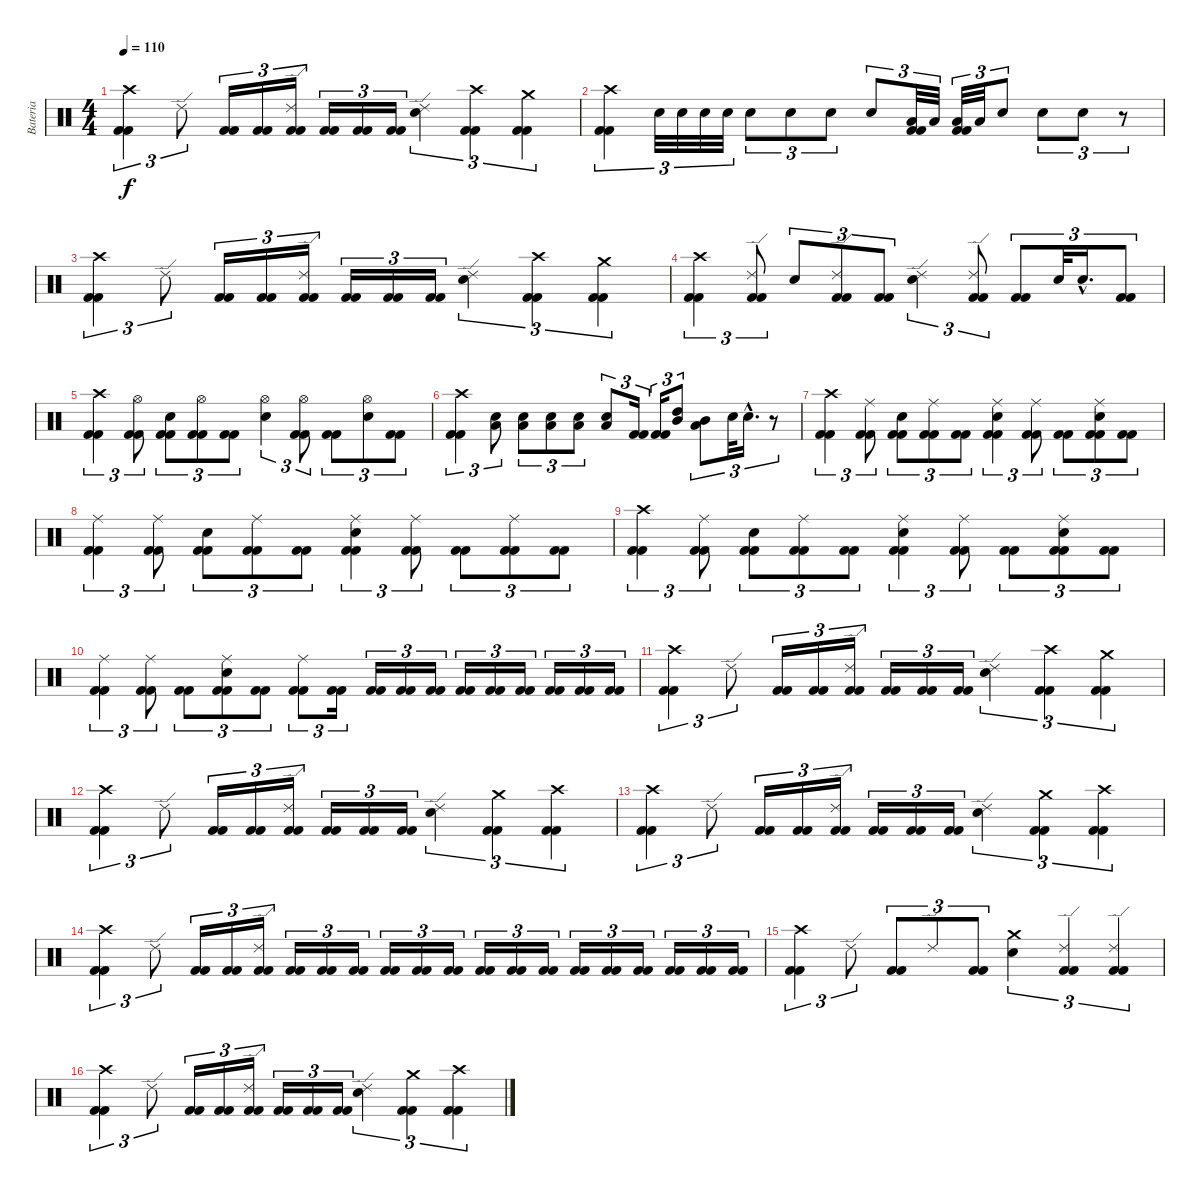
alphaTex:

\track ("Bateria" "Bateria") {instrument percussion}
\staff {score}
\articulation defaults
\ts (4 4)
\tempo 110
\clef neutral
\ks c
("Crash high (hit)" "Kick (hit) 2" "Kick (hit) 2").4{tu (3 2) dy f} "Ride (edge) 2".8{tu (3 2)} ("Kick (hit) 2" "Kick (hit) 2").16{tu (3 2)} ("Kick (hit) 2" "Kick (hit) 2").16{tu (3 2)} ("Ride (edge) 2" "Kick (hit) 2" "Kick (hit) 2").16{tu (3 2)} ("Kick (hit) 2" "Kick (hit) 2").16{tu (3 2)} ("Kick (hit) 2" "Kick (hit) 2").16{tu (3 2)} ("Kick (hit) 2" "Kick (hit) 2").16{tu (3 2)} ("Ride (edge) 2" "Electric Snare (hit)").4{tu (3 2)} ("Crash high (hit)" "Kick (hit) 2" "Kick (hit) 2").4{tu (3 2)} ("Crash medium (hit)" "Kick (hit) 2" "Kick (hit) 2").4{tu (3 2)} |
("Crash high (hit)" "Kick (hit) 2" "Kick (hit) 2").4{tu (3 2)} "Electric Snare (hit)".32{tu (3 2)} "Electric Snare (hit)".32{tu (3 2)} "Electric Snare (hit)".32{tu (3 2)} "Electric Snare (hit)".32{tu (3 2)} "Electric Snare (hit)".8{tu (3 2)} "Electric Snare (hit)".8{tu (3 2)} "Electric Snare (hit)".8{tu (3 2)} "Electric Snare (hit)".8{tu (3 2)} ("Low Tom (hit)" "Kick (hit) 2" "Kick (hit) 2").32{tu (3 2)} "Low Tom (hit)".32{tu (3 2)} ("Low Tom (hit)" "Kick (hit) 2" "Kick (hit) 2").32{tu (3 2)} "Low Tom (hit)".32{tu (3 2)} "Electric Snare (hit)".8{tu (3 2)} "Electric Snare (hit)".8{tu (3 2)} "Electric Snare (hit)".8{tu (3 2)} r.8{tu (3 2)} |
("Crash high (hit)" "Kick (hit) 2" "Kick (hit) 2").4{tu (3 2)} "Ride (edge) 2".8{tu (3 2)} ("Kick (hit) 2" "Kick (hit) 2").16{tu (3 2)} ("Kick (hit) 2" "Kick (hit) 2").16{tu (3 2)} ("Ride (edge) 2" "Kick (hit) 2" "Kick (hit) 2").16{tu (3 2)} ("Kick (hit) 2" "Kick (hit) 2").16{tu (3 2)} ("Kick (hit) 2" "Kick (hit) 2").16{tu (3 2)} ("Kick (hit) 2" "Kick (hit) 2").16{tu (3 2)} ("Ride (edge) 2" "Electric Snare (hit)").4{tu (3 2)} ("Crash high (hit)" "Kick (hit) 2" "Kick (hit) 2").4{tu (3 2)} ("Crash medium (hit)" "Kick (hit) 2" "Kick (hit) 2").4{tu (3 2)} |
("Crash high (hit)" "Kick (hit) 2" "Kick (hit) 2").4{tu (3 2)} ("Ride (edge) 2" "Kick (hit) 2" "Kick (hit) 2").8{tu (3 2)} "Electric Snare (hit)".8{tu (3 2)} ("Ride (edge) 2" "Kick (hit) 2" "Kick (hit) 2").8{tu (3 2)} ("Kick (hit) 2" "Kick (hit) 2").8{tu (3 2)} ("Ride (edge) 2" "Electric Snare (hit)").4{tu (3 2)} ("Ride (edge) 2" "Kick (hit) 2" "Kick (hit) 2").8{tu (3 2)} ("Kick (hit) 2" "Kick (hit) 2").8{tu (3 2)} "Electric Snare (hit)".32{tu (3 2)} "Electric Snare (hit)"{hac}.16{d tu (3 2)} ("Kick (hit) 2" "Kick (hit) 2").8{tu (3 2)} |
("Crash high (hit)" "Kick (hit) 2" "Kick (hit) 2").4{tu (3 2)} ("Hi-Hat (open)" "Kick (hit) 2" "Kick (hit) 2").8{tu (3 2)} ("Electric Snare (hit)" "Kick (hit) 2" "Kick (hit) 2").8{tu (3 2)} ("Hi-Hat (open)" "Kick (hit) 2" "Kick (hit) 2").8{tu (3 2)} ("Kick (hit) 2" "Kick (hit) 2").8{tu (3 2)} ("Hi-Hat (open)" "Electric Snare (hit)").4{tu (3 2)} ("Hi-Hat (open)" "Kick (hit) 2" "Kick (hit) 2").8{tu (3 2)} ("Kick (hit) 2" "Kick (hit) 2").8{tu (3 2)} ("Hi-Hat (open)" "Electric Snare (hit)").8{tu (3 2)} ("Kick (hit) 2" "Kick (hit) 2").8{tu (3 2)} |
("Crash high (hit)" "Kick (hit) 2" "Kick (hit) 2").4{tu (3 2)} ("Electric Snare (hit)" "Low Tom (hit)").8{tu (3 2)} ("Electric Snare (hit)" "Low Tom (hit)").8{tu (3 2)} ("Electric Snare (hit)" "Low Tom (hit)").8{tu (3 2)} ("Electric Snare (hit)" "Low Tom (hit)").8{tu (3 2)} ("Electric Snare (hit)" "Low Tom (hit)").8{tu (3 2)} ("Kick (hit) 2" "Kick (hit) 2").16{tu (3 2)} ("Kick (hit) 2" "Kick (hit) 2").16{tu (3 2)} ("High Tom (hit)" "Mid Tom (hit)").8{tu (3 2)} ("Mid Tom (hit)" "Low Tom (hit)").8{tu (3 2)} "Electric Snare (hit)".32{tu (3 2)} "Electric Snare (hit)"{hac}.16{d tu (3 2)} r.8{tu (3 2)} |
("Crash high (hit)" "Kick (hit) 2" "Kick (hit) 2").4{tu (3 2)} ("Ride (middle)" "Kick (hit) 2" "Kick (hit) 2").8{tu (3 2)} ("Electric Snare (hit)" "Kick (hit) 2" "Kick (hit) 2").8{tu (3 2)} ("Ride (middle)" "Kick (hit) 2" "Kick (hit) 2").8{tu (3 2)} ("Kick (hit) 2" "Kick (hit) 2").8{tu (3 2)} ("Ride (middle)" "Electric Snare (hit)" "Kick (hit) 2" "Kick (hit) 2").4{tu (3 2)} ("Ride (middle)" "Kick (hit) 2" "Kick (hit) 2").8{tu (3 2)} ("Kick (hit) 2" "Kick (hit) 2").8{tu (3 2)} ("Ride (middle)" "Electric Snare (hit)" "Kick (hit) 2" "Kick (hit) 2").8{tu (3 2)} ("Kick (hit) 2" "Kick (hit) 2").8{tu (3 2)} |
("Ride (middle)" "Kick (hit) 2" "Kick (hit) 2").4{tu (3 2)} ("Ride (middle)" "Kick (hit) 2" "Kick (hit) 2").8{tu (3 2)} ("Electric Snare (hit)" "Kick (hit) 2" "Kick (hit) 2").8{tu (3 2)} ("Ride (middle)" "Kick (hit) 2" "Kick (hit) 2").8{tu (3 2)} ("Kick (hit) 2" "Kick (hit) 2").8{tu (3 2)} ("Ride (middle)" "Electric Snare (hit)" "Kick (hit) 2" "Kick (hit) 2").4{tu (3 2)} ("Ride (middle)" "Kick (hit) 2" "Kick (hit) 2").8{tu (3 2)} ("Kick (hit) 2" "Kick (hit) 2").8{tu (3 2)} ("Ride (middle)" "Kick (hit) 2" "Kick (hit) 2").8{tu (3 2)} ("Kick (hit) 2" "Kick (hit) 2").8{tu (3 2)} |
("Crash high (hit)" "Kick (hit) 2" "Kick (hit) 2").4{tu (3 2)} ("Ride (middle)" "Kick (hit) 2" "Kick (hit) 2").8{tu (3 2)} ("Electric Snare (hit)" "Kick (hit) 2" "Kick (hit) 2").8{tu (3 2)} ("Ride (middle)" "Kick (hit) 2" "Kick (hit) 2").8{tu (3 2)} ("Kick (hit) 2" "Kick (hit) 2").8{tu (3 2)} ("Ride (middle)" "Electric Snare (hit)" "Kick (hit) 2" "Kick (hit) 2").4{tu (3 2)} ("Ride (middle)" "Kick (hit) 2" "Kick (hit) 2").8{tu (3 2)} ("Kick (hit) 2" "Kick (hit) 2").8{tu (3 2)} ("Ride (middle)" "Electric Snare (hit)" "Kick (hit) 2" "Kick (hit) 2").8{tu (3 2)} ("Kick (hit) 2" "Kick (hit) 2").8{tu (3 2)} |
("Ride (middle)" "Kick (hit) 2" "Kick (hit) 2").4{tu (3 2)} ("Ride (middle)" "Kick (hit) 2" "Kick (hit) 2").8{tu (3 2)} ("Kick (hit) 2" "Kick (hit) 2").8{tu (3 2)} ("Ride (middle)" "Electric Snare (hit)" "Kick (hit) 2" "Kick (hit) 2").8{tu (3 2)} ("Kick (hit) 2" "Kick (hit) 2").8{tu (3 2)} ("Ride (middle)" "Kick (hit) 2" "Kick (hit) 2").8{tu (3 2)} ("Kick (hit) 2" "Kick (hit) 2").16{tu (3 2)} ("Kick (hit) 2" "Kick (hit) 2").16{tu (3 2)} ("Kick (hit) 2" "Kick (hit) 2").16{tu (3 2)} ("Kick (hit) 2" "Kick (hit) 2").16{tu (3 2)} ("Kick (hit) 2" "Kick (hit) 2").16{tu (3 2)} ("Kick (hit) 2" "Kick (hit) 2").16{tu (3 2)} ("Kick (hit) 2" "Kick (hit) 2").16{tu (3 2)} ("Kick (hit) 2" "Kick (hit) 2").16{tu (3 2)} ("Kick (hit) 2" "Kick (hit) 2").16{tu (3 2)} ("Kick (hit) 2" "Kick (hit) 2").16{tu (3 2)} |
("Crash high (hit)" "Kick (hit) 2" "Kick (hit) 2").4{tu (3 2)} "Ride (edge) 2".8{tu (3 2)} ("Kick (hit) 2" "Kick (hit) 2").16{tu (3 2)} ("Kick (hit) 2" "Kick (hit) 2").16{tu (3 2)} ("Ride (edge) 2" "Kick (hit) 2" "Kick (hit) 2").16{tu (3 2)} ("Kick (hit) 2" "Kick (hit) 2").16{tu (3 2)} ("Kick (hit) 2" "Kick (hit) 2").16{tu (3 2)} ("Kick (hit) 2" "Kick (hit) 2").16{tu (3 2)} ("Ride (edge) 2" "Electric Snare (hit)").4{tu (3 2)} ("Crash high (hit)" "Kick (hit) 2" "Kick (hit) 2").4{tu (3 2)} ("Crash medium (hit)" "Kick (hit) 2" "Kick (hit) 2").4{tu (3 2)} |
("Crash high (hit)" "Kick (hit) 2" "Kick (hit) 2").4{tu (3 2)} "Ride (edge) 2".8{tu (3 2)} ("Kick (hit) 2" "Kick (hit) 2").16{tu (3 2)} ("Kick (hit) 2" "Kick (hit) 2").16{tu (3 2)} ("Ride (edge) 2" "Kick (hit) 2" "Kick (hit) 2").16{tu (3 2)} ("Kick (hit) 2" "Kick (hit) 2").16{tu (3 2)} ("Kick (hit) 2" "Kick (hit) 2").16{tu (3 2)} ("Kick (hit) 2" "Kick (hit) 2").16{tu (3 2)} ("Ride (edge) 2" "Electric Snare (hit)").4{tu (3 2)} ("Crash medium (hit)" "Kick (hit) 2" "Kick (hit) 2").4{tu (3 2)} ("Crash high (hit)" "Kick (hit) 2" "Kick (hit) 2").4{tu (3 2)} |
("Crash high (hit)" "Kick (hit) 2" "Kick (hit) 2").4{tu (3 2)} "Ride (edge) 2".8{tu (3 2)} ("Kick (hit) 2" "Kick (hit) 2").16{tu (3 2)} ("Kick (hit) 2" "Kick (hit) 2").16{tu (3 2)} ("Ride (edge) 2" "Kick (hit) 2" "Kick (hit) 2").16{tu (3 2)} ("Kick (hit) 2" "Kick (hit) 2").16{tu (3 2)} ("Kick (hit) 2" "Kick (hit) 2").16{tu (3 2)} ("Kick (hit) 2" "Kick (hit) 2").16{tu (3 2)} ("Ride (edge) 2" "Electric Snare (hit)").4{tu (3 2)} ("Crash medium (hit)" "Kick (hit) 2" "Kick (hit) 2").4{tu (3 2)} ("Crash high (hit)" "Kick (hit) 2" "Kick (hit) 2").4{tu (3 2)} |
("Crash high (hit)" "Kick (hit) 2" "Kick (hit) 2").4{tu (3 2)} "Ride (edge) 2".8{tu (3 2)} ("Kick (hit) 2" "Kick (hit) 2").16{tu (3 2)} ("Kick (hit) 2" "Kick (hit) 2").16{tu (3 2)} ("Ride (edge) 2" "Kick (hit) 2" "Kick (hit) 2").16{tu (3 2)} ("Kick (hit) 2" "Kick (hit) 2").16{tu (3 2)} ("Kick (hit) 2" "Kick (hit) 2").16{tu (3 2)} ("Kick (hit) 2" "Kick (hit) 2").16{tu (3 2)} ("Kick (hit) 2" "Kick (hit) 2").16{tu (3 2)} ("Kick (hit) 2" "Kick (hit) 2").16{tu (3 2)} ("Kick (hit) 2" "Kick (hit) 2").16{tu (3 2)} ("Kick (hit) 2" "Kick (hit) 2").16{tu (3 2)} ("Kick (hit) 2" "Kick (hit) 2").16{tu (3 2)} ("Kick (hit) 2" "Kick (hit) 2").16{tu (3 2)} ("Kick (hit) 2" "Kick (hit) 2").16{tu (3 2)} ("Kick (hit) 2" "Kick (hit) 2").16{tu (3 2)} ("Kick (hit) 2" "Kick (hit) 2").16{tu (3 2)} ("Kick (hit) 2" "Kick (hit) 2").16{tu (3 2)} ("Kick (hit) 2" "Kick (hit) 2").16{tu (3 2)} ("Kick (hit) 2" "Kick (hit) 2").16{tu (3 2)} |
("Crash high (hit)" "Kick (hit) 2" "Kick (hit) 2").4{tu (3 2)} "Ride (edge) 2".8{tu (3 2)} ("Kick (hit) 2" "Kick (hit) 2").8{tu (3 2)} "Ride (edge) 2".8{tu (3 2)} ("Kick (hit) 2" "Kick (hit) 2").8{tu (3 2)} ("Crash medium (hit)" "Electric Snare (hit)").4{tu (3 2)} ("Ride (edge) 2" "Kick (hit) 2" "Kick (hit) 2").4{tu (3 2)} ("Ride (edge) 2" "Kick (hit) 2" "Kick (hit) 2").4{tu (3 2)} |
("Crash high (hit)" "Kick (hit) 2" "Kick (hit) 2").4{tu (3 2)} "Ride (edge) 2".8{tu (3 2)} ("Kick (hit) 2" "Kick (hit) 2").16{tu (3 2)} ("Kick (hit) 2" "Kick (hit) 2").16{tu (3 2)} ("Ride (edge) 2" "Kick (hit) 2" "Kick (hit) 2").16{tu (3 2)} ("Kick (hit) 2" "Kick (hit) 2").16{tu (3 2)} ("Kick (hit) 2" "Kick (hit) 2").16{tu (3 2)} ("Kick (hit) 2" "Kick (hit) 2").16{tu (3 2)} ("Ride (edge) 2" "Electric Snare (hit)").4{tu (3 2)} ("Crash medium (hit)" "Kick (hit) 2" "Kick (hit) 2").4{tu (3 2)} ("Crash high (hit)" "Kick (hit) 2" "Kick (hit) 2").4{tu (3 2)}
